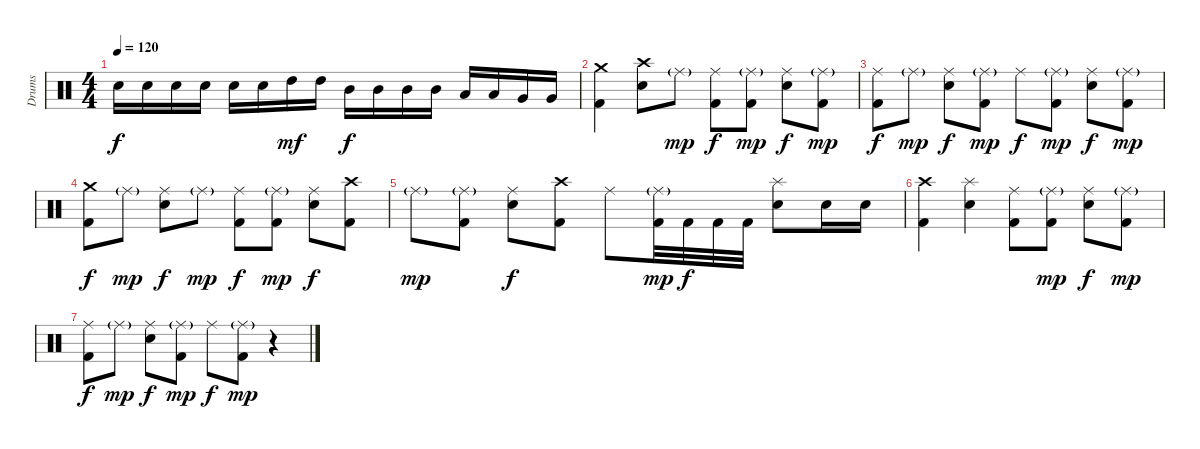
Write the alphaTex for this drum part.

\track ("Drums" "Drums") {instrument percussion}
\staff {score}
\articulation defaults
\ts (4 4)
\tempo 120
\clef neutral
\ks c "Snare (hit) 2".16{dy f volume 6} "Snare (hit) 2".16 "Snare (hit) 2".16 "Snare (hit) 2".16 "Snare (hit) 2".16 "Snare (hit) 2".16 "High Tom (hit)".16{dy mf} "High Tom (hit)".16 "Mid Tom (hit)".16{dy f} "Mid Tom (hit)".16 "Mid Tom (hit)".16 "Mid Tom (hit)".16 "Low Tom (hit)".16 "Low Tom (hit)".16 "Very Low Tom (hit)".16 "Very Low Tom (hit)".16
|
("Crash medium (hit)" "Kick (hit) 2").4{volume 5} ("Crash high (hit)" "Snare (hit) 2").8 "Ride (middle)"{g}.8{dy mp} ("Ride (middle)" "Kick (hit) 2").8{dy f} ("Ride (middle)"{g} "Kick (hit) 2").8{dy mp} ("Ride (middle)" "Snare (hit) 2").8{dy f} ("Ride (middle)"{g} "Kick (hit) 2").8{dy mp} |
("Ride (middle)" "Kick (hit) 2").8{dy f volume 4} "Ride (middle)"{g}.8{dy mp} ("Ride (middle)" "Snare (hit) 2").8{dy f} ("Ride (middle)"{g} "Kick (hit) 2").8{dy mp} "Ride (middle)".8{dy f} ("Ride (middle)"{g} "Kick (hit) 2").8{dy mp} ("Ride (middle)" "Snare (hit) 2").8{dy f} ("Ride (middle)"{g} "Kick (hit) 2").8{dy mp} |
("Crash medium (hit)" "Kick (hit) 2").8{dy f volume 3} "Ride (middle)"{g}.8{dy mp} ("Ride (middle)" "Snare (hit) 2").8{dy f} "Ride (middle)"{g}.8{dy mp} ("Ride (middle)" "Kick (hit) 2").8{dy f} ("Ride (middle)"{g} "Kick (hit) 2").8{dy mp} ("Ride (middle)" "Snare (hit) 2").8{dy f} ("Crash high (hit)" "Kick (hit) 2").8 |
"Ride (middle)"{g}.8{dy mp volume 2} ("Ride (middle)"{g} "Kick (hit) 2").8 ("Ride (middle)" "Snare (hit) 2").8{dy f} ("Crash high (hit)" "Kick (hit) 2").8 "Ride (middle)".8 ("Ride (middle)"{g} "Kick (hit) 2").32{dy mp} "Kick (hit) 2".32{dy f} "Kick (hit) 2".32 "Kick (hit) 2".32 ("Splash (hit)" "Snare (hit) 2").8 "Snare (hit) 2".16 "Snare (hit) 2".16 |
("Crash high (hit)" "Kick (hit) 2").4{volume 1} ("Splash (hit)" "Snare (hit) 2").4 ("Ride (middle)" "Kick (hit) 2").8 ("Ride (middle)"{g} "Kick (hit) 2").8{dy mp} ("Ride (middle)" "Snare (hit) 2").8{dy f} ("Ride (middle)"{g} "Kick (hit) 2").8{dy mp} |
("Ride (middle)" "Kick (hit) 2").8{dy f volume 0} "Ride (middle)"{g}.8{dy mp} ("Ride (middle)" "Snare (hit) 2").8{dy f} ("Ride (middle)"{g} "Kick (hit) 2").8{dy mp} "Ride (middle)".8{dy f} ("Ride (middle)"{g} "Kick (hit) 2").8{dy mp} r.4
